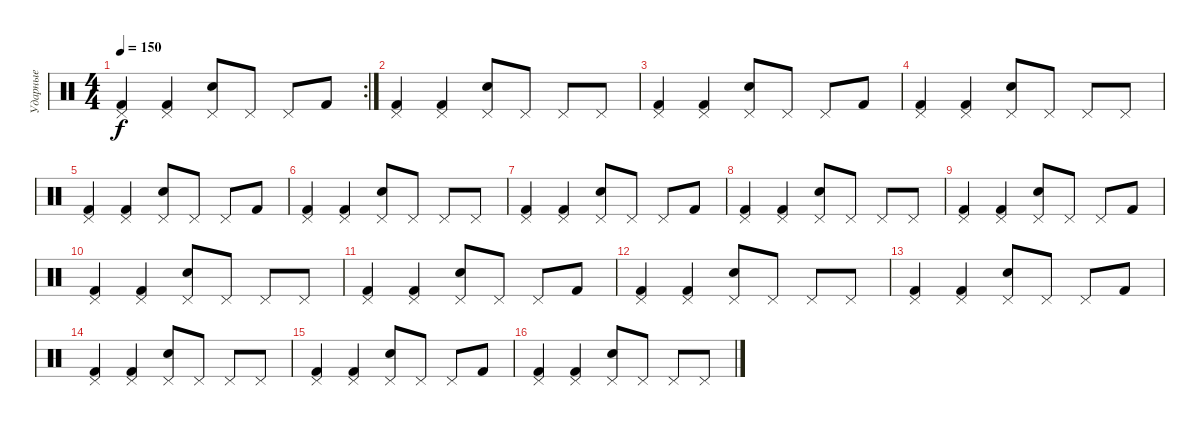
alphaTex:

\track ("Ударные" "Ударные") {instrument percussion}
\staff {score}
\articulation defaults
\rc 2
\ts (4 4)
\tempo 150
\clef neutral
\ks c
("Pedal Hi-Hat (hit)" "Kick (hit) 2").4{dy f} ("Pedal Hi-Hat (hit)" "Kick (hit) 2").4 ("Pedal Hi-Hat (hit)" "Snare (hit) 2").8 "Pedal Hi-Hat (hit)".8 "Pedal Hi-Hat (hit)".8 "Kick (hit) 2".8 |
("Pedal Hi-Hat (hit)" "Kick (hit) 2").4 ("Pedal Hi-Hat (hit)" "Kick (hit) 2").4 ("Pedal Hi-Hat (hit)" "Snare (hit) 2").8 "Pedal Hi-Hat (hit)".8 "Pedal Hi-Hat (hit)".8 "Pedal Hi-Hat (hit)".8 |
("Pedal Hi-Hat (hit)" "Kick (hit) 2").4 ("Pedal Hi-Hat (hit)" "Kick (hit) 2").4 ("Pedal Hi-Hat (hit)" "Snare (hit) 2").8 "Pedal Hi-Hat (hit)".8 "Pedal Hi-Hat (hit)".8 "Kick (hit) 2".8 |
("Pedal Hi-Hat (hit)" "Kick (hit) 2").4 ("Pedal Hi-Hat (hit)" "Kick (hit) 2").4 ("Pedal Hi-Hat (hit)" "Snare (hit) 2").8 "Pedal Hi-Hat (hit)".8 "Pedal Hi-Hat (hit)".8 "Pedal Hi-Hat (hit)".8 |
("Pedal Hi-Hat (hit)" "Kick (hit) 2").4 ("Pedal Hi-Hat (hit)" "Kick (hit) 2").4 ("Pedal Hi-Hat (hit)" "Snare (hit) 2").8 "Pedal Hi-Hat (hit)".8 "Pedal Hi-Hat (hit)".8 "Kick (hit) 2".8 |
("Pedal Hi-Hat (hit)" "Kick (hit) 2").4 ("Pedal Hi-Hat (hit)" "Kick (hit) 2").4 ("Pedal Hi-Hat (hit)" "Snare (hit) 2").8 "Pedal Hi-Hat (hit)".8 "Pedal Hi-Hat (hit)".8 "Pedal Hi-Hat (hit)".8 |
("Pedal Hi-Hat (hit)" "Kick (hit) 2").4 ("Pedal Hi-Hat (hit)" "Kick (hit) 2").4 ("Pedal Hi-Hat (hit)" "Snare (hit) 2").8 "Pedal Hi-Hat (hit)".8 "Pedal Hi-Hat (hit)".8 "Kick (hit) 2".8 |
("Pedal Hi-Hat (hit)" "Kick (hit) 2").4 ("Pedal Hi-Hat (hit)" "Kick (hit) 2").4 ("Pedal Hi-Hat (hit)" "Snare (hit) 2").8 "Pedal Hi-Hat (hit)".8 "Pedal Hi-Hat (hit)".8 "Pedal Hi-Hat (hit)".8 |
("Pedal Hi-Hat (hit)" "Kick (hit) 2").4 ("Pedal Hi-Hat (hit)" "Kick (hit) 2").4 ("Pedal Hi-Hat (hit)" "Snare (hit) 2").8 "Pedal Hi-Hat (hit)".8 "Pedal Hi-Hat (hit)".8 "Kick (hit) 2".8 |
("Pedal Hi-Hat (hit)" "Kick (hit) 2").4 ("Pedal Hi-Hat (hit)" "Kick (hit) 2").4 ("Pedal Hi-Hat (hit)" "Snare (hit) 2").8 "Pedal Hi-Hat (hit)".8 "Pedal Hi-Hat (hit)".8 "Pedal Hi-Hat (hit)".8 |
("Pedal Hi-Hat (hit)" "Kick (hit) 2").4 ("Pedal Hi-Hat (hit)" "Kick (hit) 2").4 ("Pedal Hi-Hat (hit)" "Snare (hit) 2").8 "Pedal Hi-Hat (hit)".8 "Pedal Hi-Hat (hit)".8 "Kick (hit) 2".8 |
("Pedal Hi-Hat (hit)" "Kick (hit) 2").4 ("Pedal Hi-Hat (hit)" "Kick (hit) 2").4 ("Pedal Hi-Hat (hit)" "Snare (hit) 2").8 "Pedal Hi-Hat (hit)".8 "Pedal Hi-Hat (hit)".8 "Pedal Hi-Hat (hit)".8 |
("Pedal Hi-Hat (hit)" "Kick (hit) 2").4 ("Pedal Hi-Hat (hit)" "Kick (hit) 2").4 ("Pedal Hi-Hat (hit)" "Snare (hit) 2").8 "Pedal Hi-Hat (hit)".8 "Pedal Hi-Hat (hit)".8 "Kick (hit) 2".8 |
("Pedal Hi-Hat (hit)" "Kick (hit) 2").4 ("Pedal Hi-Hat (hit)" "Kick (hit) 2").4 ("Pedal Hi-Hat (hit)" "Snare (hit) 2").8 "Pedal Hi-Hat (hit)".8 "Pedal Hi-Hat (hit)".8 "Pedal Hi-Hat (hit)".8 |
("Pedal Hi-Hat (hit)" "Kick (hit) 2").4 ("Pedal Hi-Hat (hit)" "Kick (hit) 2").4 ("Pedal Hi-Hat (hit)" "Snare (hit) 2").8 "Pedal Hi-Hat (hit)".8 "Pedal Hi-Hat (hit)".8 "Kick (hit) 2".8 |
("Pedal Hi-Hat (hit)" "Kick (hit) 2").4 ("Pedal Hi-Hat (hit)" "Kick (hit) 2").4 ("Pedal Hi-Hat (hit)" "Snare (hit) 2").8 "Pedal Hi-Hat (hit)".8 "Pedal Hi-Hat (hit)".8 "Pedal Hi-Hat (hit)".8
